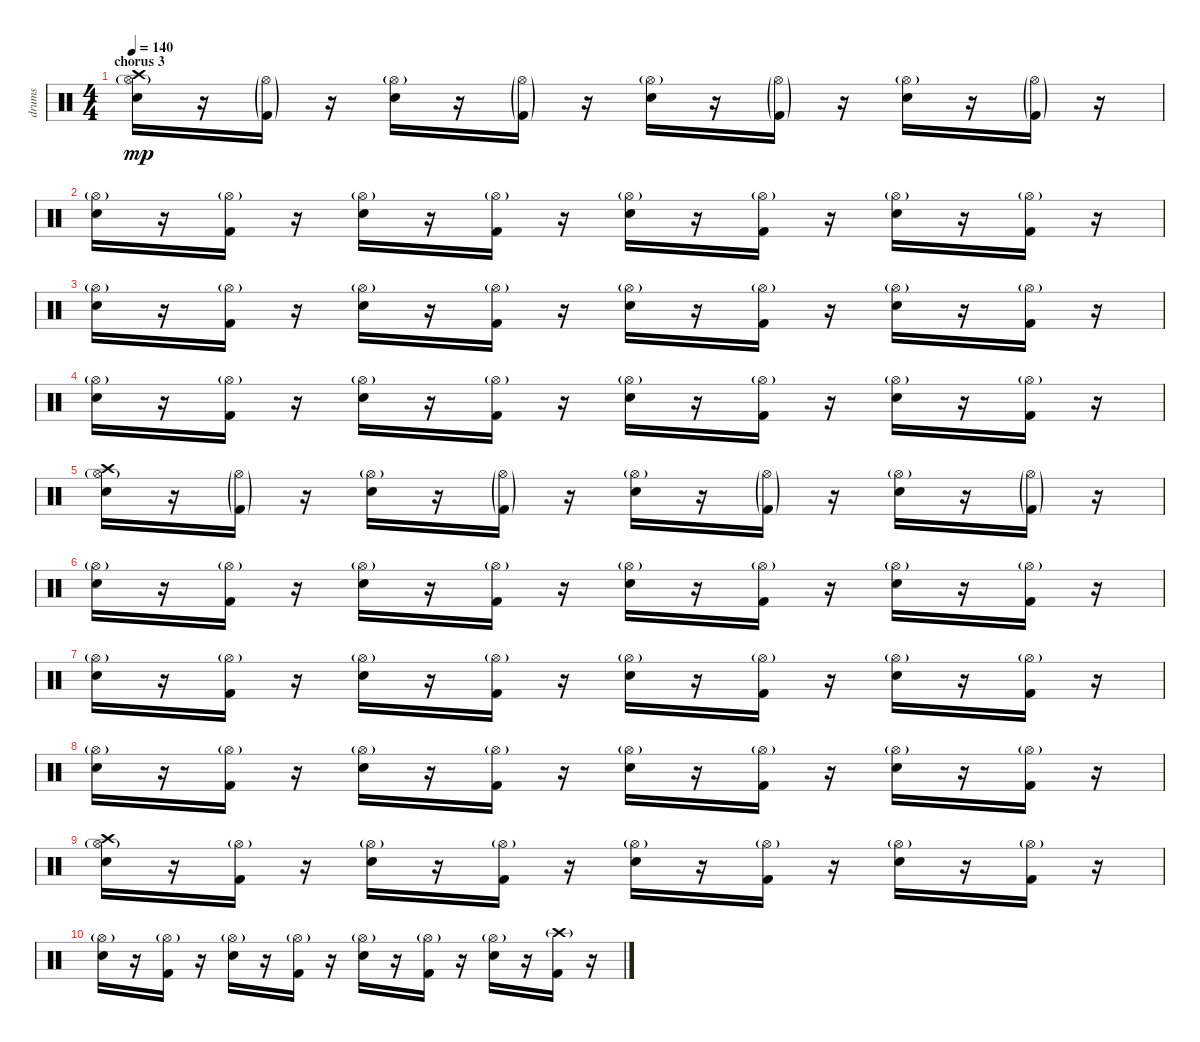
\track ("drums" "drums") {instrument percussion}
\staff {score}
\articulation defaults
\ts (4 4)
\section ("" "chorus 3")
\tempo 140
\clef neutral
\ks c
("Electric Snare (hit)" "Hi-Hat (open)"{g} "Crash high (hit)").16{dy mp} r.16 ("Kick (hit) 2"{g} "Hi-Hat (open)"{g}).16 r.16 ("Electric Snare (hit)" "Hi-Hat (open)"{g}).16 r.16 ("Kick (hit) 2"{g} "Hi-Hat (open)"{g}).16 r.16 ("Electric Snare (hit)" "Hi-Hat (open)"{g}).16 r.16 ("Kick (hit) 2"{g} "Hi-Hat (open)"{g}).16 r.16 ("Electric Snare (hit)" "Hi-Hat (open)"{g}).16 r.16 ("Kick (hit) 2"{g} "Hi-Hat (open)"{g}).16 r.16 |
("Electric Snare (hit)" "Hi-Hat (open)"{g}).16 r.16 ("Kick (hit) 2" "Hi-Hat (open)"{g}).16 r.16 ("Electric Snare (hit)" "Hi-Hat (open)"{g}).16 r.16 ("Kick (hit) 2" "Hi-Hat (open)"{g}).16 r.16 ("Electric Snare (hit)" "Hi-Hat (open)"{g}).16 r.16 ("Kick (hit) 2" "Hi-Hat (open)"{g}).16 r.16 ("Electric Snare (hit)" "Hi-Hat (open)"{g}).16 r.16 ("Kick (hit) 2" "Hi-Hat (open)"{g}).16 r.16 |
("Electric Snare (hit)" "Hi-Hat (open)"{g}).16 r.16 ("Kick (hit) 2" "Hi-Hat (open)"{g}).16 r.16 ("Electric Snare (hit)" "Hi-Hat (open)"{g}).16 r.16 ("Kick (hit) 2" "Hi-Hat (open)"{g}).16 r.16 ("Electric Snare (hit)" "Hi-Hat (open)"{g}).16 r.16 ("Kick (hit) 2" "Hi-Hat (open)"{g}).16 r.16 ("Electric Snare (hit)" "Hi-Hat (open)"{g}).16 r.16 ("Kick (hit) 2" "Hi-Hat (open)"{g}).16 r.16 |
("Electric Snare (hit)" "Hi-Hat (open)"{g}).16 r.16 ("Kick (hit) 2" "Hi-Hat (open)"{g}).16 r.16 ("Electric Snare (hit)" "Hi-Hat (open)"{g}).16 r.16 ("Kick (hit) 2" "Hi-Hat (open)"{g}).16 r.16 ("Electric Snare (hit)" "Hi-Hat (open)"{g}).16 r.16 ("Kick (hit) 2" "Hi-Hat (open)"{g}).16 r.16 ("Electric Snare (hit)" "Hi-Hat (open)"{g}).16 r.16 ("Kick (hit) 2" "Hi-Hat (open)"{g}).16 r.16 |
("Electric Snare (hit)" "Hi-Hat (open)"{g} "Crash high (hit)").16 r.16 ("Kick (hit) 2"{g} "Hi-Hat (open)"{g}).16 r.16 ("Electric Snare (hit)" "Hi-Hat (open)"{g}).16 r.16 ("Kick (hit) 2"{g} "Hi-Hat (open)"{g}).16 r.16 ("Electric Snare (hit)" "Hi-Hat (open)"{g}).16 r.16 ("Kick (hit) 2"{g} "Hi-Hat (open)"{g}).16 r.16 ("Electric Snare (hit)" "Hi-Hat (open)"{g}).16 r.16 ("Kick (hit) 2"{g} "Hi-Hat (open)"{g}).16 r.16 |
("Electric Snare (hit)" "Hi-Hat (open)"{g}).16 r.16 ("Kick (hit) 2" "Hi-Hat (open)"{g}).16 r.16 ("Electric Snare (hit)" "Hi-Hat (open)"{g}).16 r.16 ("Kick (hit) 2" "Hi-Hat (open)"{g}).16 r.16 ("Electric Snare (hit)" "Hi-Hat (open)"{g}).16 r.16 ("Kick (hit) 2" "Hi-Hat (open)"{g}).16 r.16 ("Electric Snare (hit)" "Hi-Hat (open)"{g}).16 r.16 ("Kick (hit) 2" "Hi-Hat (open)"{g}).16 r.16 |
("Electric Snare (hit)" "Hi-Hat (open)"{g}).16 r.16 ("Kick (hit) 2" "Hi-Hat (open)"{g}).16 r.16 ("Electric Snare (hit)" "Hi-Hat (open)"{g}).16 r.16 ("Kick (hit) 2" "Hi-Hat (open)"{g}).16 r.16 ("Electric Snare (hit)" "Hi-Hat (open)"{g}).16 r.16 ("Kick (hit) 2" "Hi-Hat (open)"{g}).16 r.16 ("Electric Snare (hit)" "Hi-Hat (open)"{g}).16 r.16 ("Kick (hit) 2" "Hi-Hat (open)"{g}).16 r.16 |
("Electric Snare (hit)" "Hi-Hat (open)"{g}).16 r.16 ("Kick (hit) 2" "Hi-Hat (open)"{g}).16 r.16 ("Electric Snare (hit)" "Hi-Hat (open)"{g}).16 r.16 ("Kick (hit) 2" "Hi-Hat (open)"{g}).16 r.16 ("Electric Snare (hit)" "Hi-Hat (open)"{g}).16 r.16 ("Kick (hit) 2" "Hi-Hat (open)"{g}).16 r.16 ("Electric Snare (hit)" "Hi-Hat (open)"{g}).16 r.16 ("Kick (hit) 2" "Hi-Hat (open)"{g}).16 r.16 |
("Electric Snare (hit)" "Hi-Hat (open)"{g} "Crash high (hit)").16 r.16 ("Kick (hit) 2" "Hi-Hat (open)"{g}).16 r.16 ("Electric Snare (hit)" "Hi-Hat (open)"{g}).16 r.16 ("Kick (hit) 2" "Hi-Hat (open)"{g}).16 r.16 ("Electric Snare (hit)" "Hi-Hat (open)"{g}).16 r.16 ("Kick (hit) 2" "Hi-Hat (open)"{g}).16 r.16 ("Electric Snare (hit)" "Hi-Hat (open)"{g}).16 r.16 ("Kick (hit) 2" "Hi-Hat (open)"{g}).16 r.16 |
("Electric Snare (hit)" "Hi-Hat (open)"{g}).16 r.16 ("Kick (hit) 2" "Hi-Hat (open)"{g}).16 r.16 ("Electric Snare (hit)" "Hi-Hat (open)"{g}).16 r.16 ("Kick (hit) 2" "Hi-Hat (open)"{g}).16 r.16 ("Electric Snare (hit)" "Hi-Hat (open)"{g}).16 r.16 ("Kick (hit) 2" "Hi-Hat (open)"{g}).16 r.16 ("Electric Snare (hit)" "Hi-Hat (open)"{g}).16 r.16 ("Kick (hit) 2" "Crash high (hit)"{g}).16 r.16
